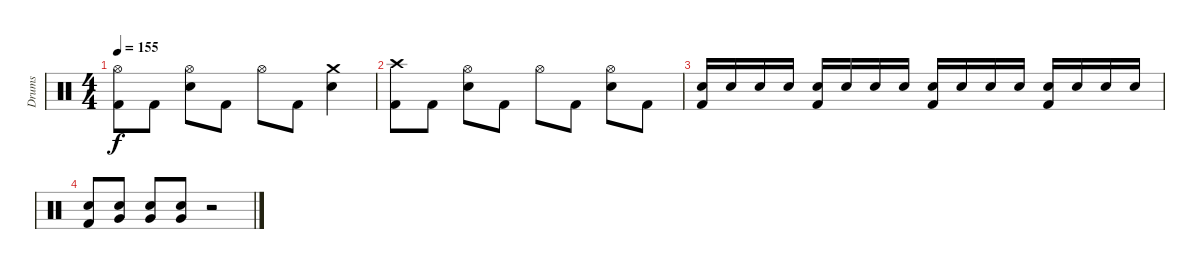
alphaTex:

\track ("Drums" "Drums") {instrument percussion}
\staff {score}
\articulation defaults
\ts (4 4)
\tempo 155
\clef neutral
\ks c
("Kick (hit) 2" "Hi-Hat (open)").8{dy f} "Kick (hit) 2".8 ("Electric Snare (hit)" "Hi-Hat (open)").8 "Kick (hit) 2".8 "Hi-Hat (open)".8 "Kick (hit) 2".8 ("Electric Snare (hit)" "Crash medium (hit)").4 |
("Kick (hit) 2" "Crash high (hit)").8 "Kick (hit) 2".8 ("Electric Snare (hit)" "Hi-Hat (open)").8 "Kick (hit) 2".8 "Hi-Hat (open)".8 "Kick (hit) 2".8 ("Electric Snare (hit)" "Hi-Hat (open)").8 "Kick (hit) 2".8 |
("Kick (hit) 2" "Electric Snare (hit)").16 "Electric Snare (hit)".16 "Electric Snare (hit)".16 "Electric Snare (hit)".16 ("Kick (hit) 2" "Electric Snare (hit)").16 "Electric Snare (hit)".16 "Electric Snare (hit)".16 "Electric Snare (hit)".16 ("Kick (hit) 2" "Electric Snare (hit)").16 "Electric Snare (hit)".16 "Electric Snare (hit)".16 "Electric Snare (hit)".16 ("Kick (hit) 2" "Electric Snare (hit)").16 "Electric Snare (hit)".16 "Electric Snare (hit)".16 "Electric Snare (hit)".16 |
("Kick (hit) 2" "Electric Snare (hit)").8 ("Electric Snare (hit)" "Very Low Tom (hit)").8 ("Electric Snare (hit)" "Very Low Tom (hit)").8 ("Electric Snare (hit)" "Very Low Tom (hit)").8 r.2
